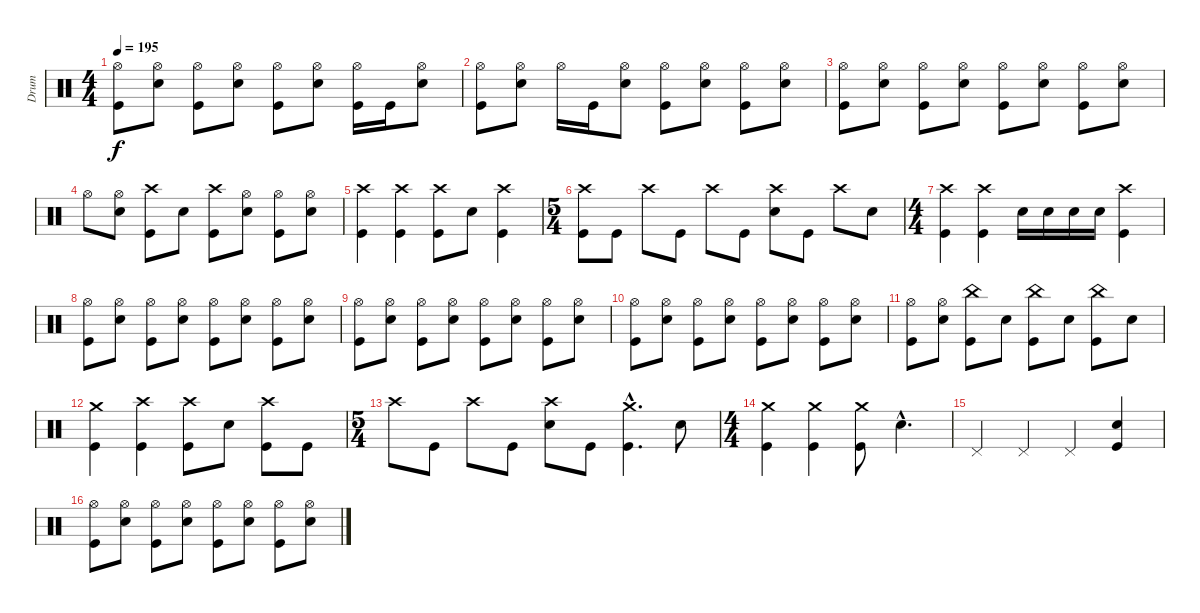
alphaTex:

\track ("Drum" "Drum") {instrument percussion}
\staff {score}
\articulation defaults
\ts (4 4)
\tempo 195
\clef neutral
\ks c
("Hi-Hat (open)" "Kick (hit)").8{dy f} ("Hi-Hat (open)" "Snare (hit) 2").8 ("Hi-Hat (open)" "Kick (hit)").8 ("Hi-Hat (open)" "Snare (hit) 2").8 ("Hi-Hat (open)" "Kick (hit)").8 ("Hi-Hat (open)" "Snare (hit) 2").8 ("Hi-Hat (open)" "Kick (hit)").16 "Kick (hit)".16 ("Hi-Hat (open)" "Snare (hit) 2").8 |
("Hi-Hat (open)" "Kick (hit)").8 ("Hi-Hat (open)" "Snare (hit) 2").8 "Hi-Hat (open)".16 "Kick (hit)".16 ("Hi-Hat (open)" "Snare (hit) 2").8 ("Hi-Hat (open)" "Kick (hit)").8 ("Hi-Hat (open)" "Snare (hit) 2").8 ("Hi-Hat (open)" "Kick (hit)").8 ("Hi-Hat (open)" "Snare (hit) 2").8 |
("Hi-Hat (open)" "Kick (hit)").8 ("Hi-Hat (open)" "Snare (hit) 2").8 ("Hi-Hat (open)" "Kick (hit)").8 ("Hi-Hat (open)" "Snare (hit) 2").8 ("Hi-Hat (open)" "Kick (hit)").8 ("Hi-Hat (open)" "Snare (hit) 2").8 ("Hi-Hat (open)" "Kick (hit)").8 ("Hi-Hat (open)" "Snare (hit) 2").8 |
"Hi-Hat (open)".8 ("Hi-Hat (open)" "Snare (hit) 2").8 ("Crash high (hit)" "Kick (hit)").8 "Snare (hit) 2".8 ("Crash high (hit)" "Kick (hit)").8 ("Hi-Hat (open)" "Snare (hit) 2").8 ("Hi-Hat (open)" "Kick (hit)").8 ("Hi-Hat (open)" "Snare (hit) 2").8 |
("Crash high (hit)" "Kick (hit)").4 ("Crash high (hit)" "Kick (hit)").4 ("Crash high (hit)" "Kick (hit)").8 "Snare (hit) 2".8 ("Crash high (hit)" "Kick (hit)").4 |
\ts (5 4)
("Crash high (hit)" "Kick (hit)").8 "Kick (hit)".8 "Crash high (hit)".8 "Kick (hit)".8 "Crash high (hit)".8 "Kick (hit)".8 ("Crash high (hit)" "Snare (hit) 2").8 "Kick (hit)".8 "Crash high (hit)".8 "Snare (hit) 2".8 |
\ts (4 4)
("Crash high (hit)" "Kick (hit)").4 ("Crash high (hit)" "Kick (hit)").4 "Snare (hit) 2".16 "Snare (hit) 2".16 "Snare (hit) 2".16 "Snare (hit) 2".16 ("Crash high (hit)" "Kick (hit)").4 |
("Hi-Hat (open)" "Kick (hit)").8 ("Hi-Hat (open)" "Snare (hit) 2").8 ("Hi-Hat (open)" "Kick (hit)").8 ("Hi-Hat (open)" "Snare (hit) 2").8 ("Hi-Hat (open)" "Kick (hit)").8 ("Hi-Hat (open)" "Snare (hit) 2").8 ("Hi-Hat (open)" "Kick (hit)").8 ("Hi-Hat (open)" "Snare (hit) 2").8 |
("Hi-Hat (open)" "Kick (hit)").8 ("Hi-Hat (open)" "Snare (hit) 2").8 ("Hi-Hat (open)" "Kick (hit)").8 ("Hi-Hat (open)" "Snare (hit) 2").8 ("Hi-Hat (open)" "Kick (hit)").8 ("Hi-Hat (open)" "Snare (hit) 2").8 ("Hi-Hat (open)" "Kick (hit)").8 ("Hi-Hat (open)" "Snare (hit) 2").8 |
("Hi-Hat (open)" "Kick (hit)").8 ("Hi-Hat (open)" "Snare (hit) 2").8 ("Hi-Hat (open)" "Kick (hit)").8 ("Hi-Hat (open)" "Snare (hit) 2").8 ("Hi-Hat (open)" "Kick (hit)").8 ("Hi-Hat (open)" "Snare (hit) 2").8 ("Hi-Hat (open)" "Kick (hit)").8 ("Hi-Hat (open)" "Snare (hit) 2").8 |
("Hi-Hat (open)" "Kick (hit)").8 ("Hi-Hat (open)" "Snare (hit) 2").8 ("China (hit)" "Kick (hit)").8 "Snare (hit) 2".8 ("China (hit)" "Kick (hit)").8 "Snare (hit) 2".8 ("China (hit)" "Kick (hit)").8 "Snare (hit) 2".8 |
("Crash medium (hit)" "Kick (hit)").4 ("Crash high (hit)" "Kick (hit)").4 ("Crash high (hit)" "Kick (hit)").8 "Snare (hit) 2".8 ("Crash high (hit)" "Kick (hit)").8 "Kick (hit)".8 |
\ts (5 4)
"Crash high (hit)".8 "Kick (hit)".8 "Crash high (hit)".8 "Kick (hit)".8 ("Crash high (hit)" "Snare (hit) 2").8 "Kick (hit)".8 ("Crash medium (hit)"{hac} "Kick (hit)"{hac}).4{d} "Snare (hit) 2".8 |
\ts (4 4)
("Crash medium (hit)" "Kick (hit)").4 ("Crash medium (hit)" "Kick (hit)").4 ("Crash medium (hit)" "Kick (hit)").8 "Snare (hit) 2"{hac}.4{d} |
"Pedal Hi-Hat (hit)".4 "Pedal Hi-Hat (hit)".4 "Pedal Hi-Hat (hit)".4 ("Snare (hit) 2" "Kick (hit)").4 |
("Hi-Hat (open)" "Kick (hit)").8 ("Hi-Hat (open)" "Snare (hit) 2").8 ("Hi-Hat (open)" "Kick (hit)").8 ("Hi-Hat (open)" "Snare (hit) 2").8 ("Hi-Hat (open)" "Kick (hit)").8 ("Hi-Hat (open)" "Snare (hit) 2").8 ("Hi-Hat (open)" "Kick (hit)").8 ("Hi-Hat (open)" "Snare (hit) 2").8
